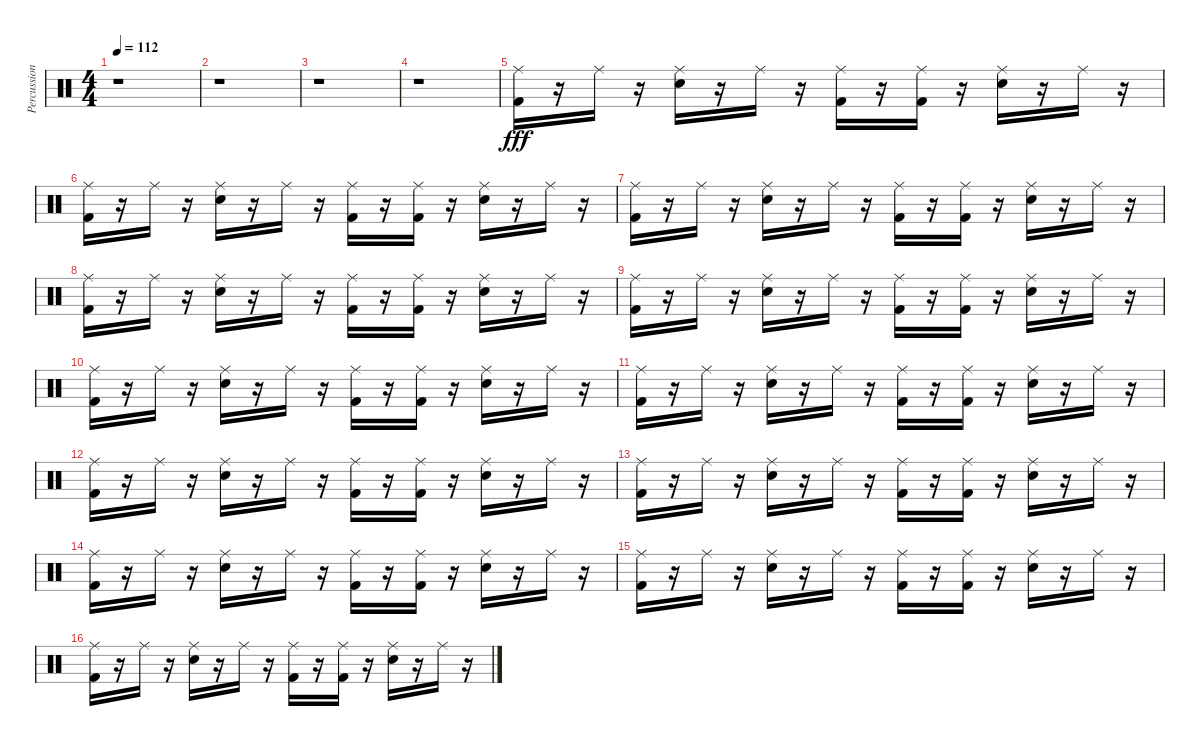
\track ("Percussions" "Percussion") {instrument percussion}
\staff {score}
\articulation defaults
\ts (4 4)
\tempo 112
\clef neutral
\ks c
r.1{dy fff} |
r.1 |
r.1 |
r.1 |
("Ride (middle)" "Kick (hit) 2").16 r.16 "Ride (middle)".16 r.16 ("Ride (middle)" "Electric Snare (hit)").16 r.16 "Ride (middle)".16 r.16 ("Ride (middle)" "Kick (hit) 2").16 r.16 ("Ride (middle)" "Kick (hit) 2").16 r.16 ("Ride (middle)" "Electric Snare (hit)").16 r.16 "Ride (middle)".16 r.16 |
("Ride (middle)" "Kick (hit) 2").16 r.16 "Ride (middle)".16 r.16 ("Ride (middle)" "Electric Snare (hit)").16 r.16 "Ride (middle)".16 r.16 ("Ride (middle)" "Kick (hit) 2").16 r.16 ("Ride (middle)" "Kick (hit) 2").16 r.16 ("Ride (middle)" "Electric Snare (hit)").16 r.16 "Ride (middle)".16 r.16 |
("Ride (middle)" "Kick (hit) 2").16 r.16 "Ride (middle)".16 r.16 ("Ride (middle)" "Electric Snare (hit)").16 r.16 "Ride (middle)".16 r.16 ("Ride (middle)" "Kick (hit) 2").16 r.16 ("Ride (middle)" "Kick (hit) 2").16 r.16 ("Ride (middle)" "Electric Snare (hit)").16 r.16 "Ride (middle)".16 r.16 |
("Ride (middle)" "Kick (hit) 2").16 r.16 "Ride (middle)".16 r.16 ("Ride (middle)" "Electric Snare (hit)").16 r.16 "Ride (middle)".16 r.16 ("Ride (middle)" "Kick (hit) 2").16 r.16 ("Ride (middle)" "Kick (hit) 2").16 r.16 ("Ride (middle)" "Electric Snare (hit)").16 r.16 "Ride (middle)".16 r.16 |
("Ride (middle)" "Kick (hit) 2").16 r.16 "Ride (middle)".16 r.16 ("Ride (middle)" "Electric Snare (hit)").16 r.16 "Ride (middle)".16 r.16 ("Ride (middle)" "Kick (hit) 2").16 r.16 ("Ride (middle)" "Kick (hit) 2").16 r.16 ("Ride (middle)" "Electric Snare (hit)").16 r.16 "Ride (middle)".16 r.16 |
("Ride (middle)" "Kick (hit) 2").16 r.16 "Ride (middle)".16 r.16 ("Ride (middle)" "Electric Snare (hit)").16 r.16 "Ride (middle)".16 r.16 ("Ride (middle)" "Kick (hit) 2").16 r.16 ("Ride (middle)" "Kick (hit) 2").16 r.16 ("Ride (middle)" "Electric Snare (hit)").16 r.16 "Ride (middle)".16 r.16 |
("Ride (middle)" "Kick (hit) 2").16 r.16 "Ride (middle)".16 r.16 ("Ride (middle)" "Electric Snare (hit)").16 r.16 "Ride (middle)".16 r.16 ("Ride (middle)" "Kick (hit) 2").16 r.16 ("Ride (middle)" "Kick (hit) 2").16 r.16 ("Ride (middle)" "Electric Snare (hit)").16 r.16 "Ride (middle)".16 r.16 |
("Ride (middle)" "Kick (hit) 2").16 r.16 "Ride (middle)".16 r.16 ("Ride (middle)" "Electric Snare (hit)").16 r.16 "Ride (middle)".16 r.16 ("Ride (middle)" "Kick (hit) 2").16 r.16 ("Ride (middle)" "Kick (hit) 2").16 r.16 ("Ride (middle)" "Electric Snare (hit)").16 r.16 "Ride (middle)".16 r.16 |
("Ride (middle)" "Kick (hit) 2").16 r.16 "Ride (middle)".16 r.16 ("Ride (middle)" "Electric Snare (hit)").16 r.16 "Ride (middle)".16 r.16 ("Ride (middle)" "Kick (hit) 2").16 r.16 ("Ride (middle)" "Kick (hit) 2").16 r.16 ("Ride (middle)" "Electric Snare (hit)").16 r.16 "Ride (middle)".16 r.16 |
("Ride (middle)" "Kick (hit) 2").16 r.16 "Ride (middle)".16 r.16 ("Ride (middle)" "Electric Snare (hit)").16 r.16 "Ride (middle)".16 r.16 ("Ride (middle)" "Kick (hit) 2").16 r.16 ("Ride (middle)" "Kick (hit) 2").16 r.16 ("Ride (middle)" "Electric Snare (hit)").16 r.16 "Ride (middle)".16 r.16 |
("Ride (middle)" "Kick (hit) 2").16 r.16 "Ride (middle)".16 r.16 ("Ride (middle)" "Electric Snare (hit)").16 r.16 "Ride (middle)".16 r.16 ("Ride (middle)" "Kick (hit) 2").16 r.16 ("Ride (middle)" "Kick (hit) 2").16 r.16 ("Ride (middle)" "Electric Snare (hit)").16 r.16 "Ride (middle)".16 r.16 |
("Ride (middle)" "Kick (hit) 2").16 r.16 "Ride (middle)".16 r.16 ("Ride (middle)" "Electric Snare (hit)").16 r.16 "Ride (middle)".16 r.16 ("Ride (middle)" "Kick (hit) 2").16 r.16 ("Ride (middle)" "Kick (hit) 2").16 r.16 ("Ride (middle)" "Electric Snare (hit)").16 r.16 "Ride (middle)".16 r.16
